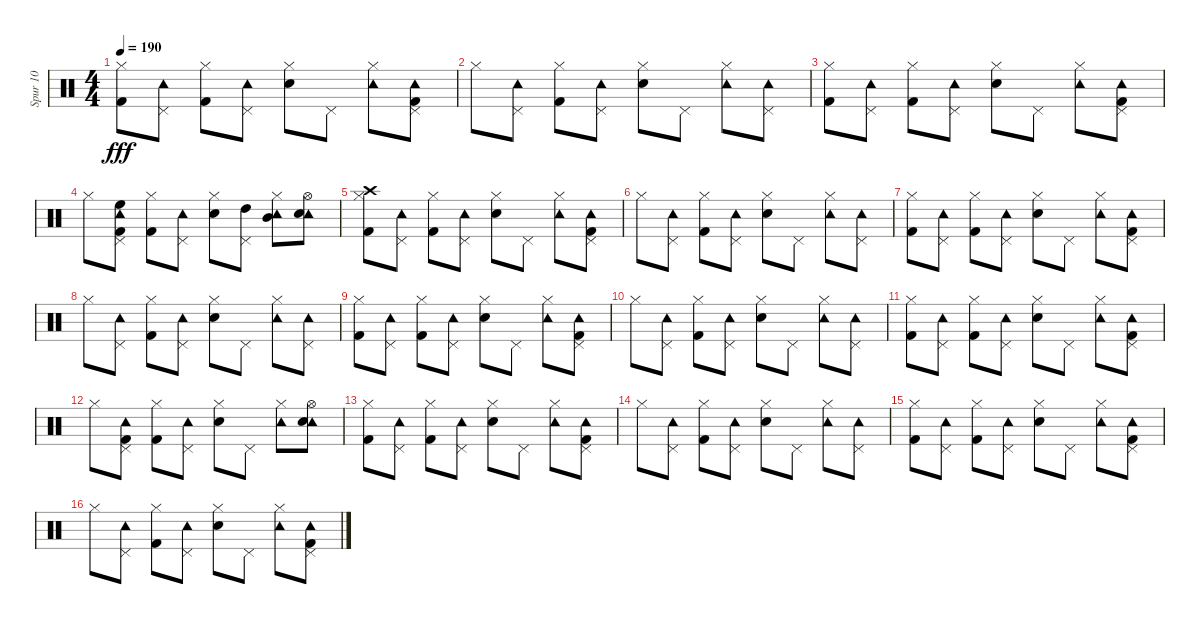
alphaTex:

\track ("Spur 10" "Spur 10") {instrument percussion}
\staff {score}
\articulation defaults
\ts (4 4)
\tempo 190
\clef neutral
\ks c
("Hi-Hat (closed)" "Kick (hit) 2").8{dy fff} ("Tambourine (hit)" "Pedal Hi-Hat (hit)").8 ("Hi-Hat (closed)" "Kick (hit) 2").8 ("Pedal Hi-Hat (hit)" "Tambourine (hit)").8 ("Hi-Hat (closed)" "Electric Snare (hit)").8 "Pedal Hi-Hat (hit)".8 ("Tambourine (hit)" "Hi-Hat (closed)").8 ("Pedal Hi-Hat (hit)" "Kick (hit) 2" "Tambourine (hit)").8 |
"Hi-Hat (closed)".8 ("Tambourine (hit)" "Pedal Hi-Hat (hit)").8 ("Hi-Hat (closed)" "Kick (hit) 2").8 ("Pedal Hi-Hat (hit)" "Tambourine (hit)").8 ("Hi-Hat (closed)" "Electric Snare (hit)").8 "Pedal Hi-Hat (hit)".8 ("Tambourine (hit)" "Hi-Hat (closed)").8 ("Pedal Hi-Hat (hit)" "Tambourine (hit)").8 |
("Hi-Hat (closed)" "Kick (hit) 2").8 ("Tambourine (hit)" "Pedal Hi-Hat (hit)").8 ("Hi-Hat (closed)" "Kick (hit) 2").8 ("Pedal Hi-Hat (hit)" "Tambourine (hit)").8 ("Hi-Hat (closed)" "Electric Snare (hit)").8 "Pedal Hi-Hat (hit)".8 ("Tambourine (hit)" "Hi-Hat (closed)").8 ("Pedal Hi-Hat (hit)" "Kick (hit) 2" "Tambourine (hit)").8 |
"Hi-Hat (closed)".8 ("High Floor Tom (hit)" "Tambourine (hit)" "Kick (hit) 2" "Pedal Hi-Hat (hit)").8 ("Kick (hit) 2" "Hi-Hat (closed)").8 ("Tambourine (hit)" "Pedal Hi-Hat (hit)").8 ("Electric Snare (hit)" "Hi-Hat (closed)").8 ("Pedal Hi-Hat (hit)" "High Tom (hit)").8 ("Tambourine (hit)" "Hi-Hat (closed)" "Mid Tom (hit)").8 ("Tambourine (hit)" "Electric Snare (hit)" "Hi-Hat (open)").8 |
("Crash high (hit)" "Kick (hit) 2" "Hi-Hat (closed)").8 ("Tambourine (hit)" "Pedal Hi-Hat (hit)").8 ("Hi-Hat (closed)" "Kick (hit) 2").8 ("Tambourine (hit)" "Pedal Hi-Hat (hit)").8 ("Hi-Hat (closed)" "Electric Snare (hit)").8 "Pedal Hi-Hat (hit)".8 ("Tambourine (hit)" "Hi-Hat (closed)").8 ("Tambourine (hit)" "Pedal Hi-Hat (hit)" "Kick (hit) 2").8 |
"Hi-Hat (closed)".8 ("Tambourine (hit)" "Pedal Hi-Hat (hit)").8 ("Hi-Hat (closed)" "Kick (hit) 2").8 ("Tambourine (hit)" "Pedal Hi-Hat (hit)").8 ("Hi-Hat (closed)" "Electric Snare (hit)").8 "Pedal Hi-Hat (hit)".8 ("Tambourine (hit)" "Hi-Hat (closed)").8 ("Tambourine (hit)" "Pedal Hi-Hat (hit)").8 |
("Hi-Hat (closed)" "Kick (hit) 2").8 ("Tambourine (hit)" "Pedal Hi-Hat (hit)").8 ("Hi-Hat (closed)" "Kick (hit) 2").8 ("Tambourine (hit)" "Pedal Hi-Hat (hit)").8 ("Hi-Hat (closed)" "Electric Snare (hit)").8 "Pedal Hi-Hat (hit)".8 ("Tambourine (hit)" "Hi-Hat (closed)").8 ("Tambourine (hit)" "Pedal Hi-Hat (hit)" "Kick (hit) 2").8 |
"Hi-Hat (closed)".8 ("Tambourine (hit)" "Pedal Hi-Hat (hit)").8 ("Kick (hit) 2" "Hi-Hat (closed)").8 ("Tambourine (hit)" "Pedal Hi-Hat (hit)").8 ("Hi-Hat (closed)" "Electric Snare (hit)").8 "Pedal Hi-Hat (hit)".8 ("Tambourine (hit)" "Hi-Hat (closed)").8 ("Tambourine (hit)" "Pedal Hi-Hat (hit)").8 |
("Hi-Hat (closed)" "Kick (hit) 2").8 ("Pedal Hi-Hat (hit)" "Tambourine (hit)").8 ("Hi-Hat (closed)" "Kick (hit) 2").8 ("Tambourine (hit)" "Pedal Hi-Hat (hit)").8 ("Hi-Hat (closed)" "Electric Snare (hit)").8 "Pedal Hi-Hat (hit)".8 ("Tambourine (hit)" "Hi-Hat (closed)").8 ("Tambourine (hit)" "Pedal Hi-Hat (hit)" "Kick (hit) 2").8 |
"Hi-Hat (closed)".8 ("Tambourine (hit)" "Pedal Hi-Hat (hit)").8 ("Kick (hit) 2" "Hi-Hat (closed)").8 ("Pedal Hi-Hat (hit)" "Tambourine (hit)").8 ("Hi-Hat (closed)" "Electric Snare (hit)").8 "Pedal Hi-Hat (hit)".8 ("Tambourine (hit)" "Hi-Hat (closed)").8 ("Tambourine (hit)" "Pedal Hi-Hat (hit)").8 |
("Hi-Hat (closed)" "Kick (hit) 2").8 ("Pedal Hi-Hat (hit)" "Tambourine (hit)").8 ("Kick (hit) 2" "Hi-Hat (closed)").8 ("Tambourine (hit)" "Pedal Hi-Hat (hit)").8 ("Hi-Hat (closed)" "Electric Snare (hit)").8 "Pedal Hi-Hat (hit)".8 ("Tambourine (hit)" "Hi-Hat (closed)").8 ("Tambourine (hit)" "Pedal Hi-Hat (hit)" "Kick (hit) 2").8 |
"Hi-Hat (closed)".8 ("Tambourine (hit)" "Pedal Hi-Hat (hit)" "Kick (hit) 2").8 ("Hi-Hat (closed)" "Kick (hit) 2").8 ("Pedal Hi-Hat (hit)" "Tambourine (hit)").8 ("Hi-Hat (closed)" "Electric Snare (hit)").8 "Pedal Hi-Hat (hit)".8 ("Tambourine (hit)" "Hi-Hat (closed)").8 ("Tambourine (hit)" "Hi-Hat (open)" "Electric Snare (hit)").8 |
("Hi-Hat (closed)" "Kick (hit) 2").8 ("Tambourine (hit)" "Pedal Hi-Hat (hit)").8 ("Kick (hit) 2" "Hi-Hat (closed)").8 ("Tambourine (hit)" "Pedal Hi-Hat (hit)").8 ("Hi-Hat (closed)" "Electric Snare (hit)").8 "Pedal Hi-Hat (hit)".8 ("Tambourine (hit)" "Hi-Hat (closed)").8 ("Tambourine (hit)" "Pedal Hi-Hat (hit)" "Kick (hit) 2").8 |
"Hi-Hat (closed)".8 ("Tambourine (hit)" "Pedal Hi-Hat (hit)").8 ("Hi-Hat (closed)" "Kick (hit) 2").8 ("Pedal Hi-Hat (hit)" "Tambourine (hit)").8 ("Hi-Hat (closed)" "Electric Snare (hit)").8 "Pedal Hi-Hat (hit)".8 ("Tambourine (hit)" "Hi-Hat (closed)").8 ("Tambourine (hit)" "Pedal Hi-Hat (hit)").8 |
("Hi-Hat (closed)" "Kick (hit) 2").8 ("Tambourine (hit)" "Pedal Hi-Hat (hit)").8 ("Hi-Hat (closed)" "Kick (hit) 2").8 ("Tambourine (hit)" "Pedal Hi-Hat (hit)").8 ("Hi-Hat (closed)" "Electric Snare (hit)").8 "Pedal Hi-Hat (hit)".8 ("Tambourine (hit)" "Hi-Hat (closed)").8 ("Tambourine (hit)" "Pedal Hi-Hat (hit)" "Kick (hit) 2").8 |
"Hi-Hat (closed)".8 ("Tambourine (hit)" "Pedal Hi-Hat (hit)").8 ("Hi-Hat (closed)" "Kick (hit) 2").8 ("Tambourine (hit)" "Pedal Hi-Hat (hit)").8 ("Hi-Hat (closed)" "Electric Snare (hit)").8 "Pedal Hi-Hat (hit)".8 ("Tambourine (hit)" "Hi-Hat (closed)").8 ("Tambourine (hit)" "Pedal Hi-Hat (hit)" "Kick (hit) 2").8
